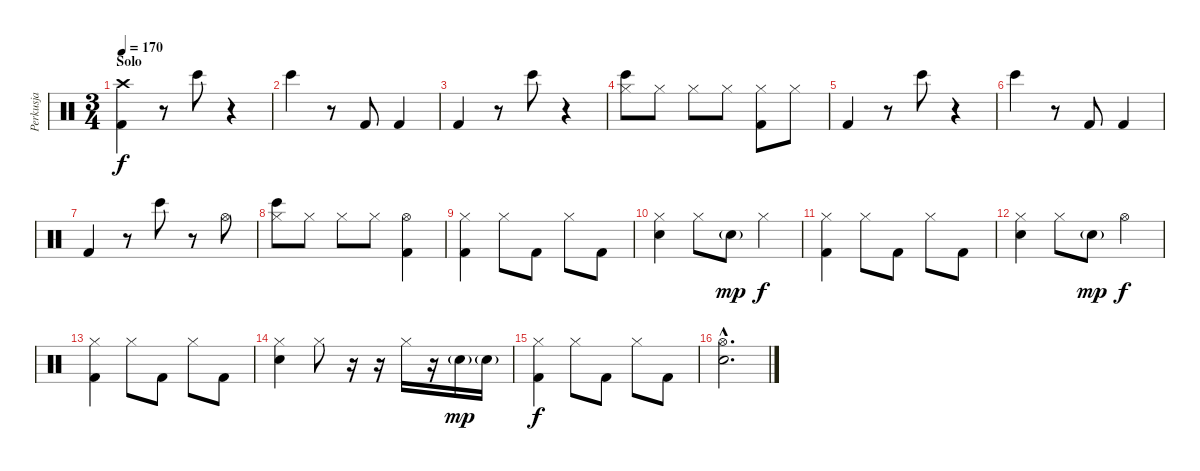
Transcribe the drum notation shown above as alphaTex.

\track ("Perkusja" "Perkusja") {instrument percussion}
\staff {score}
\articulation defaults
\ts (3 4)
\section ("" "Solo")
\tempo 170
\clef neutral
\ks c
("Kick (hit) 2" "Crash high (hit)").4{dy f} r.8 "Bongo High (hit)".8 r.4 |
"Bongo High (hit)".4 r.8 "Kick (hit) 2".8 "Kick (hit) 2".4 |
"Kick (hit) 2".4 r.8 "Bongo High (hit)".8 r.4 |
("Bongo High (hit)" "Hi-Hat (closed)").8 "Hi-Hat (closed)".8 "Hi-Hat (closed)".8 "Hi-Hat (closed)".8 ("Kick (hit) 2" "Hi-Hat (closed)").8 "Hi-Hat (closed)".8 |
"Kick (hit) 2".4 r.8 "Bongo High (hit)".8 r.4 |
"Bongo High (hit)".4 r.8 "Kick (hit) 2".8 "Kick (hit) 2".4 |
"Kick (hit) 2".4 r.8 "Bongo High (hit)".8 r.8 "Hi-Hat (open)".8 |
("Bongo High (hit)" "Hi-Hat (closed)").8 "Hi-Hat (closed)".8 "Hi-Hat (closed)".8 "Hi-Hat (closed)".8 ("Kick (hit) 2" "Hi-Hat (open)").4 |
("Kick (hit) 2" "Hi-Hat (closed)").4 "Hi-Hat (closed)".8 "Kick (hit) 2".8 "Hi-Hat (closed)".8 "Kick (hit) 2".8 |
("Snare (hit) 2" "Hi-Hat (closed)").4 "Hi-Hat (closed)".8 "Snare (hit) 2"{g}.8{dy mp} "Hi-Hat (closed)".4{dy f} |
("Kick (hit) 2" "Hi-Hat (closed)").4 "Hi-Hat (closed)".8 "Kick (hit) 2".8 "Hi-Hat (closed)".8 "Kick (hit) 2".8 |
("Snare (hit) 2" "Hi-Hat (closed)").4 "Hi-Hat (closed)".8 "Snare (hit) 2"{g}.8{dy mp} "Hi-Hat (open)".4{dy f} |
("Kick (hit) 2" "Hi-Hat (closed)").4 "Hi-Hat (closed)".8 "Kick (hit) 2".8 "Hi-Hat (closed)".8 "Kick (hit) 2".8 |
("Snare (hit) 2" "Hi-Hat (closed)").4 "Hi-Hat (closed)".8 r.16 r.16 "Hi-Hat (closed)".16 r.16 "Snare (hit) 2"{g}.16{dy mp} "Snare (hit) 2"{g}.16 |
("Kick (hit) 2" "Hi-Hat (closed)").4{dy f} "Hi-Hat (closed)".8 "Kick (hit) 2".8 "Hi-Hat (closed)".8 "Kick (hit) 2".8 |
("Snare (hit) 2"{hac} "Hi-Hat (open)"{hac}).2{d}
